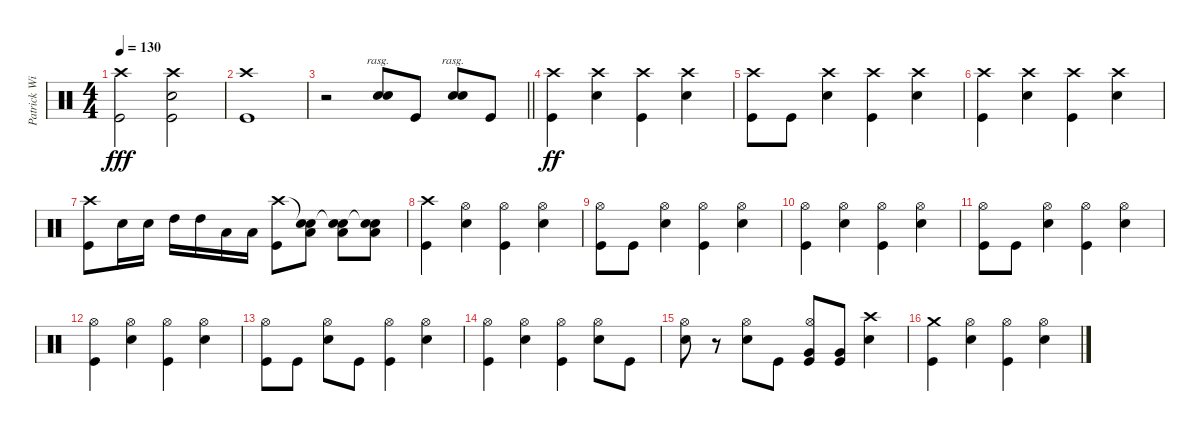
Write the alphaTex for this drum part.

\track ("Patrick Wilson" "Patrick Wi") {instrument percussion}
\staff {score}
\articulation defaults
\ts (4 4)
\tempo 130
\clef neutral
\ks c
("Crash high (hit)" "Kick (hit)").2{dy fff} ("Crash high (hit)" "Electric Snare (hit)" "Kick (hit)").2 |
("Crash high (hit)" "Kick (hit)").1 |
\barLineRight lightlight
r.2 ("Electric Snare (hit)" "Electric Snare (hit)").8{bd 480 rasg ii} "Kick (hit)".8 ("Electric Snare (hit)" "Electric Snare (hit)").8{bd 480 rasg ii} "Kick (hit)".8 |
("Crash high (hit)" "Kick (hit)").4{dy ff} ("Crash high (hit)" "Electric Snare (hit)").4 ("Crash high (hit)" "Kick (hit)").4 ("Crash high (hit)" "Electric Snare (hit)").4 |
("Crash high (hit)" "Kick (hit)").8 "Kick (hit)".8 ("Crash high (hit)" "Electric Snare (hit)").4 ("Crash high (hit)" "Kick (hit)").4 ("Crash high (hit)" "Electric Snare (hit)").4 |
("Crash high (hit)" "Kick (hit)").4 ("Crash high (hit)" "Electric Snare (hit)").4 ("Crash high (hit)" "Kick (hit)").4 ("Crash high (hit)" "Electric Snare (hit)").4 |
("Crash high (hit)" "Kick (hit)").8 "Electric Snare (hit)".16 "Electric Snare (hit)".16 "High Tom (hit)".16 "High Tom (hit)".16 "Low Tom (hit)".16 "Low Tom (hit)".16 ("Crash high (hit)" "Kick (hit)").8 ("Snare (hit)"{t} "Electric Snare (hit)" "Low Floor Tom (hit)").8 ("Snare (hit)"{t} "Electric Snare (hit)" "Low Floor Tom (hit)").8 ("Snare (hit)"{t} "Electric Snare (hit)" "Low Floor Tom (hit)").8 |
("Crash high (hit)" "Kick (hit)").4 ("Hi-Hat (open)" "Electric Snare (hit)").4 ("Hi-Hat (open)" "Kick (hit)").4 ("Hi-Hat (open)" "Electric Snare (hit)").4 |
("Hi-Hat (open)" "Kick (hit)").8 "Kick (hit)".8 ("Hi-Hat (open)" "Electric Snare (hit)").4 ("Hi-Hat (open)" "Kick (hit)").4 ("Hi-Hat (open)" "Electric Snare (hit)").4 |
("Hi-Hat (open)" "Kick (hit)").4 ("Hi-Hat (open)" "Electric Snare (hit)").4 ("Hi-Hat (open)" "Kick (hit)").4 ("Hi-Hat (open)" "Electric Snare (hit)").4 |
("Hi-Hat (open)" "Kick (hit)").8 "Kick (hit)".8 ("Hi-Hat (open)" "Electric Snare (hit)").4 ("Hi-Hat (open)" "Kick (hit)").4 ("Hi-Hat (open)" "Electric Snare (hit)").4 |
("Hi-Hat (open)" "Kick (hit)").4 ("Hi-Hat (open)" "Electric Snare (hit)").4 ("Hi-Hat (open)" "Kick (hit)").4 ("Hi-Hat (open)" "Electric Snare (hit)").4 |
("Hi-Hat (open)" "Kick (hit)").8 "Kick (hit)".8 ("Hi-Hat (open)" "Electric Snare (hit)").8 "Kick (hit)".8 ("Hi-Hat (open)" "Kick (hit)").4 ("Hi-Hat (open)" "Electric Snare (hit)").4 |
("Hi-Hat (open)" "Kick (hit)").4 ("Hi-Hat (open)" "Electric Snare (hit)").4 ("Hi-Hat (open)" "Kick (hit)").4 ("Hi-Hat (open)" "Electric Snare (hit)").8 "Kick (hit)".8 |
("Hi-Hat (open)" "Electric Snare (hit)").8 r.8 ("Hi-Hat (open)" "Electric Snare (hit)").8 "Kick (hit)".8 ("Hi-Hat (open)" "Very Low Tom (hit)" "Kick (hit)").8 ("Very Low Tom (hit)" "Kick (hit)").8 ("Crash high (hit)" "Electric Snare (hit)").4 |
("Crash medium (hit)" "Kick (hit)").4 ("Hi-Hat (open)" "Electric Snare (hit)").4 ("Hi-Hat (open)" "Kick (hit)").4 ("Hi-Hat (open)" "Electric Snare (hit)").4
